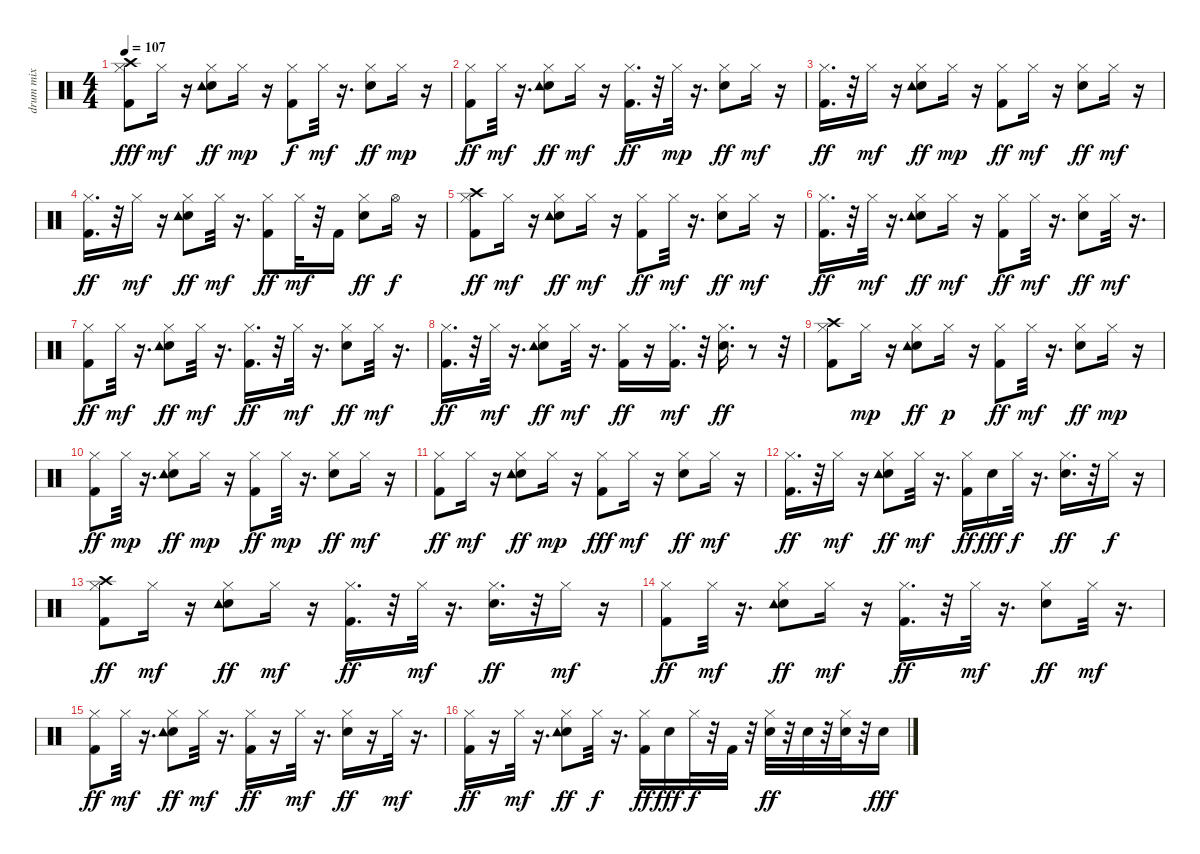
\track ("drum mix" "drum mix") {instrument percussion}
\staff {score}
\articulation defaults
\ts (4 4)
\tempo 107
\clef neutral
\ks c
("Kick (hit) 2" "Hi-Hat (closed)" "Crash high (hit)").8{dy fff} "Hi-Hat (closed)".16{dy mf} r.16 ("Electric Snare (hit)" "Hi-Hat (closed)" "Tambourine (hit)").8{dy ff} "Hi-Hat (closed)".16{dy mp} r.16 ("Kick (hit) 2" "Hi-Hat (closed)").8{dy f} "Hi-Hat (closed)".32{dy mf} r.16{d} ("Electric Snare (hit)" "Hi-Hat (closed)").8{dy ff} "Hi-Hat (closed)".16{dy mp} r.16 |
("Kick (hit) 2" "Hi-Hat (closed)").8{dy ff} "Hi-Hat (closed)".32{dy mf} r.16{d} ("Electric Snare (hit)" "Hi-Hat (closed)" "Tambourine (hit)").8{dy ff} "Hi-Hat (closed)".16{dy mf} r.16 ("Kick (hit) 2" "Hi-Hat (closed)").16{d dy ff} r.32 "Hi-Hat (closed)".32{dy mp} r.16{d} ("Electric Snare (hit)" "Hi-Hat (closed)").8{dy ff} "Hi-Hat (closed)".16{dy mf} r.16 |
("Kick (hit) 2" "Hi-Hat (closed)").16{d dy ff} r.32 "Hi-Hat (closed)".16{dy mf} r.16 ("Electric Snare (hit)" "Hi-Hat (closed)" "Tambourine (hit)").8{dy ff} "Hi-Hat (closed)".16{dy mp} r.16 ("Kick (hit) 2" "Hi-Hat (closed)").8{dy ff} "Hi-Hat (closed)".16{dy mf} r.16 ("Electric Snare (hit)" "Hi-Hat (closed)").8{dy ff} "Hi-Hat (closed)".16{dy mf} r.16 |
("Kick (hit) 2" "Hi-Hat (closed)").16{d dy ff} r.32 "Hi-Hat (closed)".16{dy mf} r.16 ("Electric Snare (hit)" "Hi-Hat (closed)" "Tambourine (hit)").8{dy ff} "Hi-Hat (closed)".32{dy mf} r.16{d} ("Kick (hit) 2" "Hi-Hat (closed)").8{dy ff} "Hi-Hat (closed)".32{dy mf} r.32 "Kick (hit) 2".16 ("Electric Snare (hit)" "Hi-Hat (closed)").8{dy ff} "Hi-Hat (open)".16{dy f} r.16 |
("Kick (hit) 2" "Hi-Hat (closed)" "Crash high (hit)").8{dy ff} "Hi-Hat (closed)".16{dy mf} r.16 ("Electric Snare (hit)" "Hi-Hat (closed)" "Tambourine (hit)").8{dy ff} "Hi-Hat (closed)".16{dy mf} r.16 ("Kick (hit) 2" "Hi-Hat (closed)").8{dy ff} "Hi-Hat (closed)".32{dy mf} r.16{d} ("Electric Snare (hit)" "Hi-Hat (closed)").8{dy ff} "Hi-Hat (closed)".16{dy mf} r.16 |
("Kick (hit) 2" "Hi-Hat (closed)").16{d dy ff} r.32 "Hi-Hat (closed)".32{dy mf} r.16{d} ("Electric Snare (hit)" "Hi-Hat (closed)" "Tambourine (hit)").8{dy ff} "Hi-Hat (closed)".16{dy mf} r.16 ("Kick (hit) 2" "Hi-Hat (closed)").8{dy ff} "Hi-Hat (closed)".32{dy mf} r.16{d} ("Electric Snare (hit)" "Hi-Hat (closed)").8{dy ff} "Hi-Hat (closed)".32{dy mf} r.16{d} |
("Kick (hit) 2" "Hi-Hat (closed)").8{dy ff} "Hi-Hat (closed)".32{dy mf volume 16} r.16{d} ("Electric Snare (hit)" "Hi-Hat (closed)" "Tambourine (hit)").8{dy ff volume 15} "Hi-Hat (closed)".32{dy mf volume 15} r.16{d} ("Kick (hit) 2" "Hi-Hat (closed)").16{d dy ff volume 15} r.32 "Hi-Hat (closed)".32{dy mf volume 15} r.16{d} ("Electric Snare (hit)" "Hi-Hat (closed)").8{dy ff volume 15} "Hi-Hat (closed)".32{dy mf volume 15} r.16{d} |
("Kick (hit) 2" "Hi-Hat (closed)").16{d dy ff volume 15} r.32 "Hi-Hat (closed)".32{dy mf volume 14} r.16{d} ("Electric Snare (hit)" "Hi-Hat (closed)" "Tambourine (hit)").8{dy ff volume 14} "Hi-Hat (closed)".32{dy mf volume 14} r.16{d} ("Kick (hit) 2" "Hi-Hat (closed)").16{dy ff volume 13} r.16 ("Kick (hit) 2" "Hi-Hat (closed)").16{d dy mf volume 13} r.32 ("Electric Snare (hit)" "Hi-Hat (closed)").16{d dy ff volume 13} r.8 r.32 |
("Kick (hit) 2" "Hi-Hat (closed)" "Crash high (hit)").8{volume 12} "Hi-Hat (closed)".16{dy mp volume 12} r.16 ("Electric Snare (hit)" "Hi-Hat (closed)" "Tambourine (hit)").8{dy ff volume 12} "Hi-Hat (closed)".16{dy p volume 11} r.16 ("Kick (hit) 2" "Hi-Hat (closed)").8{dy ff volume 11} "Hi-Hat (closed)".32{dy mf volume 11} r.16{d} ("Electric Snare (hit)" "Hi-Hat (closed)").8{dy ff volume 11} "Hi-Hat (closed)".16{dy mp volume 11} r.16 |
("Kick (hit) 2" "Hi-Hat (closed)").8{dy ff volume 10} "Hi-Hat (closed)".32{dy mp volume 10} r.16{d} ("Electric Snare (hit)" "Hi-Hat (closed)" "Tambourine (hit)").8{dy ff volume 10} "Hi-Hat (closed)".16{dy mp volume 10} r.16 ("Kick (hit) 2" "Hi-Hat (closed)").8{dy ff volume 9} "Hi-Hat (closed)".32{dy mp volume 9} r.16{d} ("Electric Snare (hit)" "Hi-Hat (closed)").8{dy ff volume 9} "Hi-Hat (closed)".16{dy mf volume 9} r.16 |
("Kick (hit) 2" "Hi-Hat (closed)").8{dy ff volume 9} "Hi-Hat (closed)".16{dy mf volume 8} r.16 ("Electric Snare (hit)" "Hi-Hat (closed)" "Tambourine (hit)").8{dy ff volume 8} "Hi-Hat (closed)".16{dy mp volume 8} r.16 ("Kick (hit) 2" "Hi-Hat (closed)").8{dy fff volume 8} "Hi-Hat (closed)".16{dy mf volume 7} r.16 ("Electric Snare (hit)" "Hi-Hat (closed)").8{dy ff volume 7} "Hi-Hat (closed)".16{dy mf volume 7} r.16 |
("Kick (hit) 2" "Hi-Hat (closed)").16{d dy ff volume 7} r.32 "Hi-Hat (closed)".16{dy mf volume 7} r.16 ("Electric Snare (hit)" "Hi-Hat (closed)" "Tambourine (hit)").8{dy ff volume 7} "Hi-Hat (closed)".32{dy mf volume 6} r.16{d} ("Kick (hit) 2" "Hi-Hat (closed)").16{dy ff volume 6} "Electric Snare (hit)".16{dy fff volume 6} "Hi-Hat (closed)".32{dy f volume 6} r.16{d} ("Electric Snare (hit)" "Hi-Hat (closed)").16{d dy ff volume 6} r.32 "Hi-Hat (closed)".16{dy f volume 6} r.16 |
("Kick (hit) 2" "Hi-Hat (closed)" "Crash high (hit)").8{dy ff volume 5} "Hi-Hat (closed)".16{dy mf volume 5} r.16 ("Electric Snare (hit)" "Hi-Hat (closed)" "Tambourine (hit)").8{dy ff volume 5} "Hi-Hat (closed)".16{dy mf volume 5} r.16 ("Kick (hit) 2" "Hi-Hat (closed)").16{d dy ff volume 5} r.32 "Hi-Hat (closed)".32{dy mf volume 5} r.16{d} ("Electric Snare (hit)" "Hi-Hat (closed)").16{d dy ff volume 4} r.32 "Hi-Hat (closed)".16{dy mf volume 4} r.16 |
("Kick (hit) 2" "Hi-Hat (closed)").8{dy ff volume 4} "Hi-Hat (closed)".32{dy mf volume 4} r.16{d} ("Electric Snare (hit)" "Hi-Hat (closed)" "Tambourine (hit)").8{dy ff volume 4} "Hi-Hat (closed)".16{dy mf volume 3} r.16 ("Kick (hit) 2" "Hi-Hat (closed)").16{d dy ff volume 3} r.32 "Hi-Hat (closed)".32{dy mf volume 3} r.16{d} ("Electric Snare (hit)" "Hi-Hat (closed)").8{dy ff volume 3} "Hi-Hat (closed)".32{dy mf volume 3} r.16{d} |
("Kick (hit) 2" "Hi-Hat (closed)").8{dy ff volume 3} "Hi-Hat (closed)".32{dy mf volume 2} r.16{d} ("Electric Snare (hit)" "Hi-Hat (closed)" "Tambourine (hit)").8{dy ff volume 2} "Hi-Hat (closed)".32{dy mf volume 2} r.16{d} ("Kick (hit) 2" "Hi-Hat (closed)").16{dy ff volume 2} r.16 "Hi-Hat (closed)".32{dy mf volume 2} r.16{d} ("Electric Snare (hit)" "Hi-Hat (closed)").16{dy ff volume 2} r.16 "Hi-Hat (closed)".32{dy mf volume 1} r.16{d} |
("Kick (hit) 2" "Hi-Hat (closed)").16{dy ff volume 1} r.16 "Hi-Hat (closed)".32{dy mf volume 1} r.16{d} ("Electric Snare (hit)" "Hi-Hat (closed)" "Tambourine (hit)").8{dy ff volume 1} "Hi-Hat (closed)".32{dy f volume 1} r.16{d} ("Kick (hit) 2" "Hi-Hat (closed)").16{dy ff volume 1} "Electric Snare (hit)".16{dy fff volume 1} "Hi-Hat (closed)".32{dy f volume 1} r.32 "Kick (hit) 2".32{volume 1} r.32 ("Electric Snare (hit)" "Hi-Hat (closed)").32{dy ff volume 0} r.32 "Electric Snare (hit)".32{volume 0} r.32 ("Electric Snare (hit)" "Hi-Hat (closed)").32{volume 0} r.32 "Electric Snare (hit)".16{dy fff volume 0}
